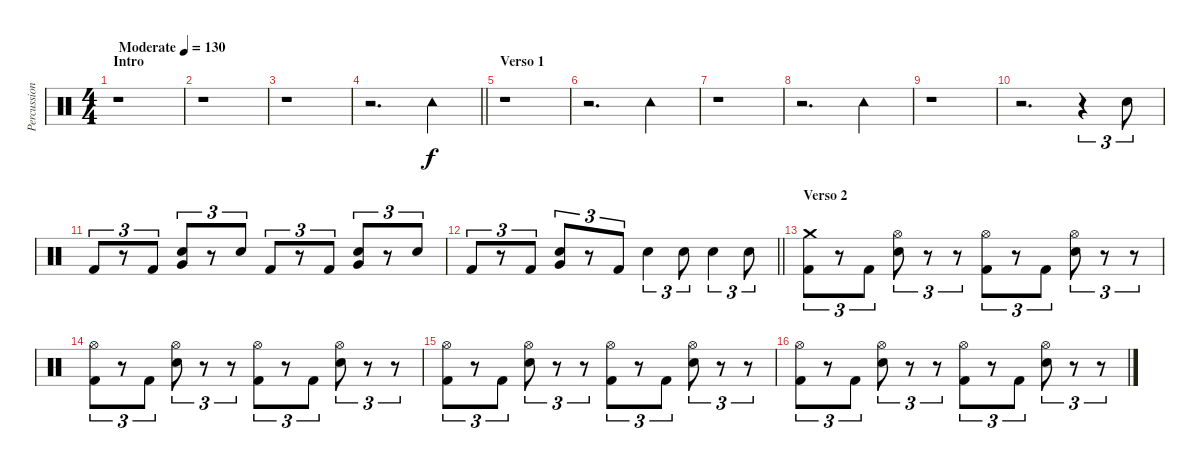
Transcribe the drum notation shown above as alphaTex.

\track ("Percussion" "Percussion") {instrument percussion}
\staff {score}
\articulation defaults
\ts (4 4)
\section ("" "Intro")
\tempo (130 "Moderate")
\clef neutral
\ks c
r.1{dy f} |
r.1 |
r.1 |
\barLineRight lightlight
r.2{d} "Tambourine (hit)".4 |
\section ("" "Verso 1")
r.1 |
r.2{d} "Tambourine (hit)".4 |
r.1 |
r.2{d} "Tambourine (hit)".4 |
r.1 |
r.2{d} r.4{tu (3 2)} "Snare (hit) 2".8{tu (3 2)} |
"Kick (hit) 2".8{tu (3 2)} r.8{tu (3 2)} "Kick (hit) 2".8{tu (3 2)} ("Very Low Tom (hit)" "Snare (hit) 2").8{tu (3 2)} r.8{tu (3 2)} "Snare (hit) 2".8{tu (3 2)} "Kick (hit) 2".8{tu (3 2)} r.8{tu (3 2)} "Kick (hit) 2".8{tu (3 2)} ("Very Low Tom (hit)" "Snare (hit) 2").8{tu (3 2)} r.8{tu (3 2)} "Snare (hit) 2".8{tu (3 2)} |
\barLineRight lightlight "Kick (hit) 2".8{tu (3 2)}
r.8{tu (3 2)} "Kick (hit) 2".8{tu (3 2)} ("Very Low Tom (hit)" "Snare (hit) 2").8{tu (3 2)} r.8{tu (3 2)} "Kick (hit) 2".8{tu (3 2)} "Snare (hit) 2".4{tu (3 2)} "Snare (hit) 2".8{tu (3 2)} "Snare (hit) 2".4{tu (3 2)} "Snare (hit) 2".8{tu (3 2)} |
\section ("" "Verso 2")
("Crash medium (hit)" "Kick (hit) 2").8{tu (3 2)} r.8{tu (3 2)} "Kick (hit) 2".8{tu (3 2)} ("Hi-Hat (open)" "Snare (hit) 2").8{tu (3 2)} r.8{tu (3 2)} r.8{tu (3 2)} ("Hi-Hat (open)" "Kick (hit) 2").8{tu (3 2)} r.8{tu (3 2)} "Kick (hit) 2".8{tu (3 2)} ("Hi-Hat (open)" "Snare (hit) 2").8{tu (3 2)} r.8{tu (3 2)} r.8{tu (3 2)} |
("Hi-Hat (open)" "Kick (hit) 2").8{tu (3 2)} r.8{tu (3 2)} "Kick (hit) 2".8{tu (3 2)} ("Hi-Hat (open)" "Snare (hit) 2").8{tu (3 2)} r.8{tu (3 2)} r.8{tu (3 2)} ("Hi-Hat (open)" "Kick (hit) 2").8{tu (3 2)} r.8{tu (3 2)} "Kick (hit) 2".8{tu (3 2)} ("Hi-Hat (open)" "Snare (hit) 2").8{tu (3 2)} r.8{tu (3 2)} r.8{tu (3 2)} |
("Hi-Hat (open)" "Kick (hit) 2").8{tu (3 2)} r.8{tu (3 2)} "Kick (hit) 2".8{tu (3 2)} ("Hi-Hat (open)" "Snare (hit) 2").8{tu (3 2)} r.8{tu (3 2)} r.8{tu (3 2)} ("Hi-Hat (open)" "Kick (hit) 2").8{tu (3 2)} r.8{tu (3 2)} "Kick (hit) 2".8{tu (3 2)} ("Hi-Hat (open)" "Snare (hit) 2").8{tu (3 2)} r.8{tu (3 2)} r.8{tu (3 2)} |
("Hi-Hat (open)" "Kick (hit) 2").8{tu (3 2)} r.8{tu (3 2)} "Kick (hit) 2".8{tu (3 2)} ("Hi-Hat (open)" "Snare (hit) 2").8{tu (3 2)} r.8{tu (3 2)} r.8{tu (3 2)} ("Hi-Hat (open)" "Kick (hit) 2").8{tu (3 2)} r.8{tu (3 2)} "Kick (hit) 2".8{tu (3 2)} ("Hi-Hat (open)" "Snare (hit) 2").8{tu (3 2)} r.8{tu (3 2)} r.8{tu (3 2)}
